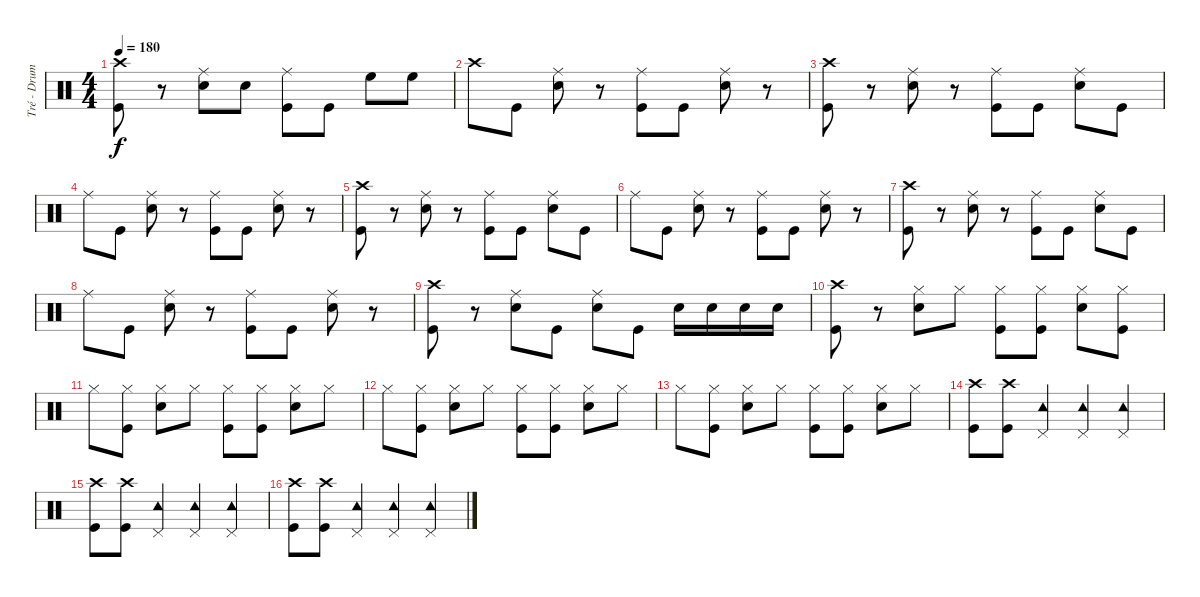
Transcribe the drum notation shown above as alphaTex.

\track ("Tré - Drums" "Tré - Drum") {instrument percussion}
\staff {score}
\articulation defaults
\ts (4 4)
\tempo 180
\clef neutral
\ks c
("Crash high (hit)" "Kick (hit)").8{dy f} r.8 ("Ride (middle)" "Electric Snare (hit)").8 "Electric Snare (hit)".8 ("Ride (middle)" "Kick (hit)").8 "Kick (hit)".8 "High Floor Tom (hit)".8 "High Floor Tom (hit)".8 |
"Crash high (hit)".8 "Kick (hit)".8 ("Ride (middle)" "Electric Snare (hit)").8 r.8 ("Ride (middle)" "Kick (hit)").8 "Kick (hit)".8 ("Ride (middle)" "Electric Snare (hit)").8 r.8 |
("Crash high (hit)" "Kick (hit)").8 r.8 ("Ride (middle)" "Electric Snare (hit)").8 r.8 ("Ride (middle)" "Kick (hit)").8 "Kick (hit)".8 ("Ride (middle)" "Electric Snare (hit)").8 "Kick (hit)".8 |
"Ride (middle)".8 "Kick (hit)".8 ("Ride (middle)" "Electric Snare (hit)").8 r.8 ("Ride (middle)" "Kick (hit)").8 "Kick (hit)".8 ("Ride (middle)" "Electric Snare (hit)").8 r.8 |
("Crash high (hit)" "Kick (hit)").8 r.8 ("Ride (middle)" "Electric Snare (hit)").8 r.8 ("Ride (middle)" "Kick (hit)").8 "Kick (hit)".8 ("Ride (middle)" "Electric Snare (hit)").8 "Kick (hit)".8 |
"Ride (middle)".8 "Kick (hit)".8 ("Ride (middle)" "Electric Snare (hit)").8 r.8 ("Ride (middle)" "Kick (hit)").8 "Kick (hit)".8 ("Ride (middle)" "Electric Snare (hit)").8 r.8 |
("Crash high (hit)" "Kick (hit)").8 r.8 ("Ride (middle)" "Electric Snare (hit)").8 r.8 ("Ride (middle)" "Kick (hit)").8 "Kick (hit)".8 ("Ride (middle)" "Electric Snare (hit)").8 "Kick (hit)".8 |
"Ride (middle)".8 "Kick (hit)".8 ("Ride (middle)" "Electric Snare (hit)").8 r.8 ("Ride (middle)" "Kick (hit)").8 "Kick (hit)".8 ("Ride (middle)" "Electric Snare (hit)").8 r.8 |
("Crash high (hit)" "Kick (hit)").8 r.8 ("Ride (middle)" "Electric Snare (hit)").8 "Kick (hit)".8 ("Ride (middle)" "Electric Snare (hit)").8 "Kick (hit)".8 "Electric Snare (hit)".16 "Electric Snare (hit)".16 "Electric Snare (hit)".16 "Electric Snare (hit)".16 |
("Crash high (hit)" "Kick (hit)").8 r.8 ("Hi-Hat (closed)" "Electric Snare (hit)").8 "Hi-Hat (closed)".8 ("Hi-Hat (closed)" "Kick (hit)").8 ("Hi-Hat (closed)" "Kick (hit)").8 ("Hi-Hat (closed)" "Electric Snare (hit)").8 ("Hi-Hat (closed)" "Kick (hit)").8 |
"Hi-Hat (closed)".8 ("Hi-Hat (closed)" "Kick (hit)").8 ("Hi-Hat (closed)" "Electric Snare (hit)").8 "Hi-Hat (closed)".8 ("Hi-Hat (closed)" "Kick (hit)").8 ("Hi-Hat (closed)" "Kick (hit)").8 ("Hi-Hat (closed)" "Electric Snare (hit)").8 "Hi-Hat (closed)".8 |
"Hi-Hat (closed)".8 ("Hi-Hat (closed)" "Kick (hit)").8 ("Hi-Hat (closed)" "Electric Snare (hit)").8 "Hi-Hat (closed)".8 ("Hi-Hat (closed)" "Kick (hit)").8 ("Hi-Hat (closed)" "Kick (hit)").8 ("Hi-Hat (closed)" "Electric Snare (hit)").8 "Hi-Hat (closed)".8 |
"Hi-Hat (closed)".8 ("Hi-Hat (closed)" "Kick (hit)").8 ("Hi-Hat (closed)" "Electric Snare (hit)").8 "Hi-Hat (closed)".8 ("Hi-Hat (closed)" "Kick (hit)").8 ("Hi-Hat (closed)" "Kick (hit)").8 ("Hi-Hat (closed)" "Electric Snare (hit)").8 "Hi-Hat (closed)".8 |
("Crash high (hit)" "Kick (hit)").8 ("Crash high (hit)" "Kick (hit)").8 ("Tambourine (hit)" "Pedal Hi-Hat (hit)").4 ("Tambourine (hit)" "Pedal Hi-Hat (hit)").4 ("Tambourine (hit)" "Pedal Hi-Hat (hit)").4 |
("Crash high (hit)" "Kick (hit)").8 ("Crash high (hit)" "Kick (hit)").8 ("Tambourine (hit)" "Pedal Hi-Hat (hit)").4 ("Tambourine (hit)" "Pedal Hi-Hat (hit)").4 ("Tambourine (hit)" "Pedal Hi-Hat (hit)").4 |
("Crash high (hit)" "Kick (hit)").8 ("Crash high (hit)" "Kick (hit)").8 ("Tambourine (hit)" "Pedal Hi-Hat (hit)").4 ("Tambourine (hit)" "Pedal Hi-Hat (hit)").4 ("Tambourine (hit)" "Pedal Hi-Hat (hit)").4
